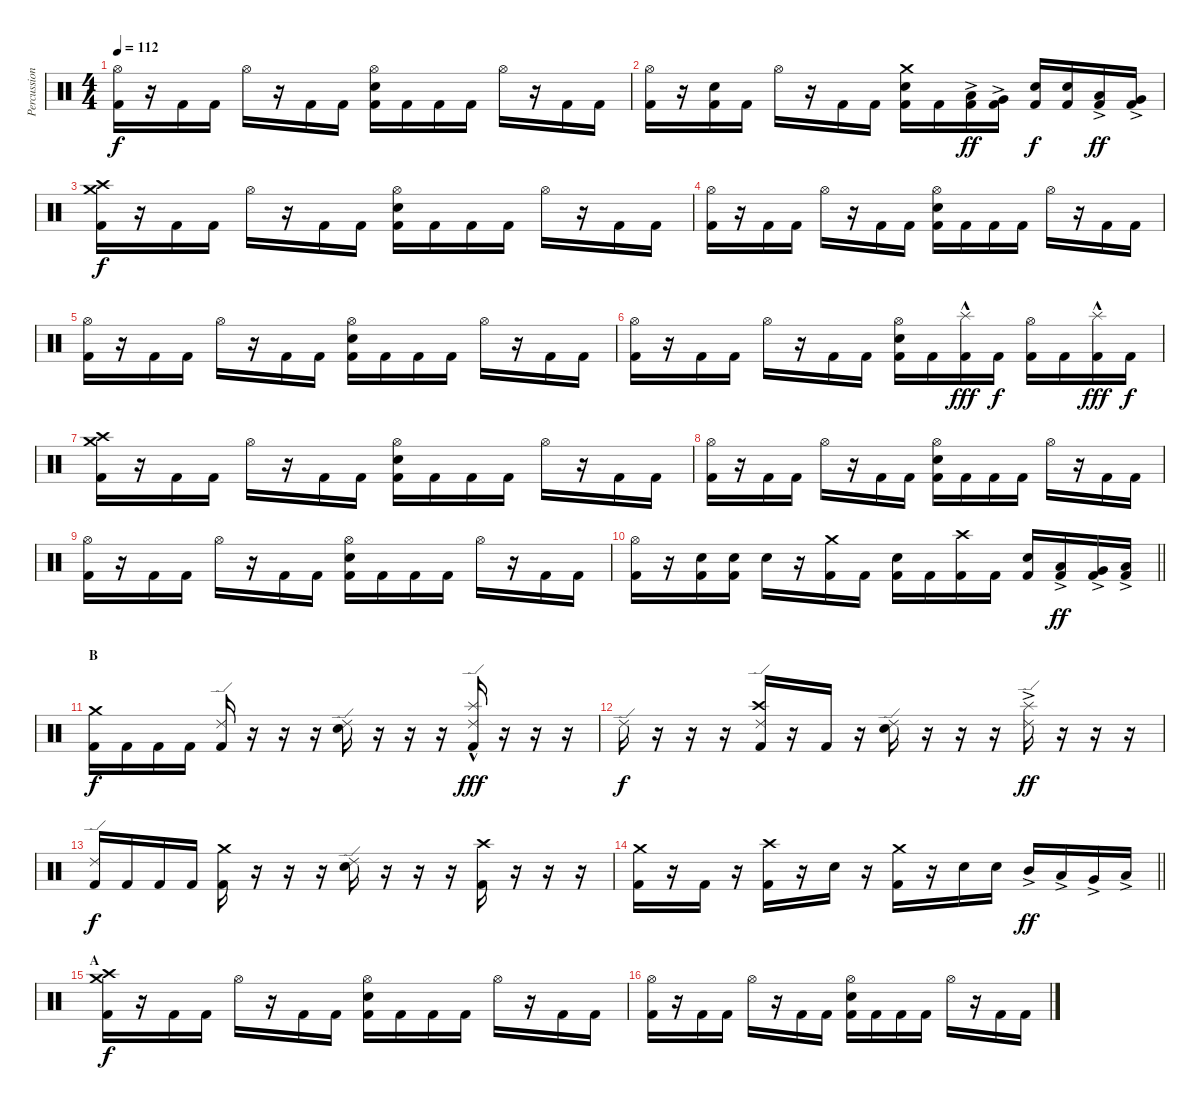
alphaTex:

\track ("Percussion" "Percussion") {instrument percussion}
\staff {score}
\articulation defaults
\ts (4 4)
\tempo 112
\clef neutral
\ks c
("Hi-Hat (open)" "Kick (hit) 2").16{dy f} r.16 "Kick (hit) 2".16 "Kick (hit) 2".16 "Hi-Hat (open)".16 r.16 "Kick (hit) 2".16 "Kick (hit) 2".16 ("Hi-Hat (open)" "Electric Snare (hit)" "Kick (hit) 2").16 "Kick (hit) 2".16 "Kick (hit) 2".16 "Kick (hit) 2".16 "Hi-Hat (open)".16 r.16 "Kick (hit) 2".16 "Kick (hit) 2".16 |
("Hi-Hat (open)" "Kick (hit) 2").16 r.16 ("Electric Snare (hit)" "Kick (hit) 2").16 "Kick (hit) 2".16 "Hi-Hat (open)".16 r.16 "Kick (hit) 2".16 "Kick (hit) 2".16 ("Crash medium (hit)" "Electric Snare (hit)" "Kick (hit) 2").16 "Kick (hit) 2".16 ("Low Tom (hit)"{ac} "Kick (hit) 2").16{dy ff} ("Very Low Tom (hit)"{ac} "Kick (hit) 2").16 ("Electric Snare (hit)" "Kick (hit) 2").16{dy f} ("Electric Snare (hit)" "Kick (hit) 2").16 ("Low Tom (hit)"{ac} "Kick (hit) 2").16{dy ff} ("Very Low Tom (hit)"{ac} "Kick (hit) 2").16 |
("Crash medium (hit)" "Crash high (hit)" "Kick (hit) 2").16{dy f} r.16 "Kick (hit) 2".16 "Kick (hit) 2".16 "Hi-Hat (open)".16 r.16 "Kick (hit) 2".16 "Kick (hit) 2".16 ("Hi-Hat (open)" "Electric Snare (hit)" "Kick (hit) 2").16 "Kick (hit) 2".16 "Kick (hit) 2".16 "Kick (hit) 2".16 "Hi-Hat (open)".16 r.16 "Kick (hit) 2".16 "Kick (hit) 2".16 |
("Hi-Hat (open)" "Kick (hit) 2").16 r.16 "Kick (hit) 2".16 "Kick (hit) 2".16 "Hi-Hat (open)".16 r.16 "Kick (hit) 2".16 "Kick (hit) 2".16 ("Hi-Hat (open)" "Electric Snare (hit)" "Kick (hit) 2").16 "Kick (hit) 2".16 "Kick (hit) 2".16 "Kick (hit) 2".16 "Hi-Hat (open)".16 r.16 "Kick (hit) 2".16 "Kick (hit) 2".16 |
("Hi-Hat (open)" "Kick (hit) 2").16 r.16 "Kick (hit) 2".16 "Kick (hit) 2".16 "Hi-Hat (open)".16 r.16 "Kick (hit) 2".16 "Kick (hit) 2".16 ("Hi-Hat (open)" "Electric Snare (hit)" "Kick (hit) 2").16 "Kick (hit) 2".16 "Kick (hit) 2".16 "Kick (hit) 2".16 "Hi-Hat (open)".16 r.16 "Kick (hit) 2".16 "Kick (hit) 2".16 |
("Hi-Hat (open)" "Kick (hit) 2").16 r.16 "Kick (hit) 2".16 "Kick (hit) 2".16 "Hi-Hat (open)".16 r.16 "Kick (hit) 2".16 "Kick (hit) 2".16 ("Hi-Hat (open)" "Electric Snare (hit)" "Kick (hit) 2").16 "Kick (hit) 2".16 ("Splash (hit)"{hac} "Kick (hit) 2").16{dy fff} "Kick (hit) 2".16{dy f} ("Hi-Hat (open)" "Kick (hit) 2").16 "Kick (hit) 2".16 ("Splash (hit)"{hac} "Kick (hit) 2").16{dy fff} "Kick (hit) 2".16{dy f} |
("Crash medium (hit)" "Crash high (hit)" "Kick (hit) 2").16 r.16 "Kick (hit) 2".16 "Kick (hit) 2".16 "Hi-Hat (open)".16 r.16 "Kick (hit) 2".16 "Kick (hit) 2".16 ("Hi-Hat (open)" "Electric Snare (hit)" "Kick (hit) 2").16 "Kick (hit) 2".16 "Kick (hit) 2".16 "Kick (hit) 2".16 "Hi-Hat (open)".16 r.16 "Kick (hit) 2".16 "Kick (hit) 2".16 |
("Hi-Hat (open)" "Kick (hit) 2").16 r.16 "Kick (hit) 2".16 "Kick (hit) 2".16 "Hi-Hat (open)".16 r.16 "Kick (hit) 2".16 "Kick (hit) 2".16 ("Hi-Hat (open)" "Electric Snare (hit)" "Kick (hit) 2").16 "Kick (hit) 2".16 "Kick (hit) 2".16 "Kick (hit) 2".16 "Hi-Hat (open)".16 r.16 "Kick (hit) 2".16 "Kick (hit) 2".16 |
("Hi-Hat (open)" "Kick (hit) 2").16 r.16 "Kick (hit) 2".16 "Kick (hit) 2".16 "Hi-Hat (open)".16 r.16 "Kick (hit) 2".16 "Kick (hit) 2".16 ("Hi-Hat (open)" "Electric Snare (hit)" "Kick (hit) 2").16 "Kick (hit) 2".16 "Kick (hit) 2".16 "Kick (hit) 2".16 "Hi-Hat (open)".16 r.16 "Kick (hit) 2".16 "Kick (hit) 2".16 |
\barLineRight lightlight
("Hi-Hat (open)" "Kick (hit) 2").16 r.16 ("Electric Snare (hit)" "Kick (hit) 2").16 ("Electric Snare (hit)" "Kick (hit) 2").16 "Electric Snare (hit)".16 r.16 ("Crash medium (hit)" "Kick (hit) 2").16 "Kick (hit) 2".16 ("Electric Snare (hit)" "Kick (hit) 2").16 "Kick (hit) 2".16 ("Crash high (hit)" "Kick (hit) 2").16 "Kick (hit) 2".16 ("Electric Snare (hit)" "Kick (hit) 2").16 ("Low Tom (hit)"{ac} "Kick (hit) 2").16{dy ff} ("Very Low Tom (hit)"{ac} "Kick (hit) 2").16 ("Low Floor Tom (hit)"{ac} "Kick (hit) 2").16 |
\section ("" "B")
("Crash medium (hit)" "Kick (hit) 2").16{dy f} "Kick (hit) 2".16 "Kick (hit) 2".16 "Kick (hit) 2".16 ("Ride (edge) 2" "Kick (hit) 2").16 r.16 r.16 r.16 ("Ride (edge) 2" "Electric Snare (hit)").16 r.16 r.16 r.16 ("Splash (hit)"{hac} "Ride (edge) 2" "Kick (hit) 2").16{dy fff} r.16 r.16 r.16 |
"Ride (edge) 2".16{dy f} r.16 r.16 r.16 ("Crash high (hit)" "Ride (edge) 2" "Kick (hit) 2").16 r.16 "Kick (hit) 2".16 r.16 ("Ride (edge) 2" "Electric Snare (hit)").16 r.16 r.16 r.16 ("Splash (hit)"{ac} "Ride (edge) 2").16{dy ff} r.16 r.16 r.16 |
("Ride (edge) 2" "Kick (hit) 2").16{dy f} "Kick (hit) 2".16 "Kick (hit) 2".16 "Kick (hit) 2".16 ("Crash medium (hit)" "Kick (hit) 2").16 r.16 r.16 r.16 ("Ride (edge) 2" "Electric Snare (hit)").16 r.16 r.16 r.16 ("Crash high (hit)" "Kick (hit) 2").16 r.16 r.16 r.16 |
\barLineRight lightlight
("Crash medium (hit)" "Kick (hit) 2").16 r.16 "Kick (hit) 2".16 r.16 ("Crash high (hit)" "Kick (hit) 2").16 r.16 "Electric Snare (hit)".16 r.16 ("Crash medium (hit)" "Kick (hit) 2").16 r.16 "Electric Snare (hit)".16 "Electric Snare (hit)".16 "Mid Tom (hit)"{ac}.16{dy ff} "Low Tom (hit)"{ac}.16 "Very Low Tom (hit)"{ac}.16 "Low Floor Tom (hit)"{ac}.16 |
\section ("" "A")
("Crash medium (hit)" "Crash high (hit)" "Kick (hit) 2").16{dy f} r.16 "Kick (hit) 2".16 "Kick (hit) 2".16 "Hi-Hat (open)".16 r.16 "Kick (hit) 2".16 "Kick (hit) 2".16 ("Hi-Hat (open)" "Electric Snare (hit)" "Kick (hit) 2").16 "Kick (hit) 2".16 "Kick (hit) 2".16 "Kick (hit) 2".16 "Hi-Hat (open)".16 r.16 "Kick (hit) 2".16 "Kick (hit) 2".16 |
("Hi-Hat (open)" "Kick (hit) 2").16 r.16 "Kick (hit) 2".16 "Kick (hit) 2".16 "Hi-Hat (open)".16 r.16 "Kick (hit) 2".16 "Kick (hit) 2".16 ("Hi-Hat (open)" "Electric Snare (hit)" "Kick (hit) 2").16 "Kick (hit) 2".16 "Kick (hit) 2".16 "Kick (hit) 2".16 "Hi-Hat (open)".16 r.16 "Kick (hit) 2".16 "Kick (hit) 2".16
